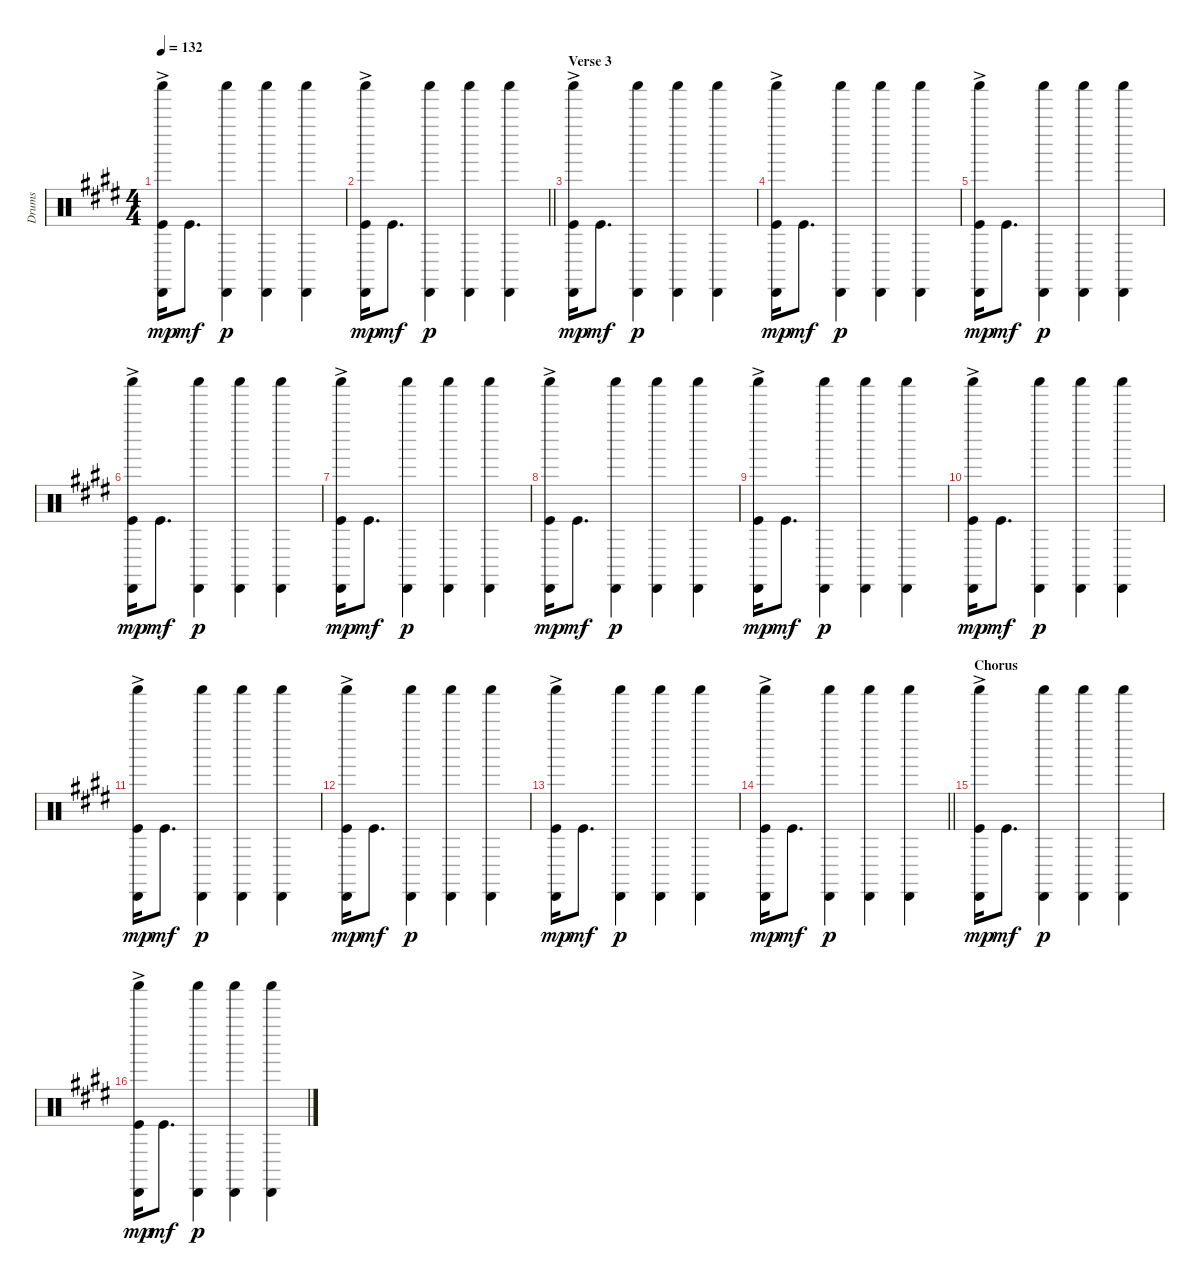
\track ("Drums" "Drums") {instrument percussion}
\staff {score}
\articulation defaults
\ts (4 4)
\tempo 132
\clef neutral
\ks e
("Shaker (hit)" "Cabasa (hit)"{ac} "Kick (hit)").16{dy mp} "Kick (hit)".8{d dy mf} ("Shaker (hit)" "Cabasa (hit)").4{dy p} ("Shaker (hit)" "Cabasa (hit)").4 ("Shaker (hit)" "Cabasa (hit)").4 |
\barLineRight lightlight
("Shaker (hit)" "Cabasa (hit)"{ac} "Kick (hit)").16{dy mp} "Kick (hit)".8{d dy mf} ("Shaker (hit)" "Cabasa (hit)").4{dy p} ("Shaker (hit)" "Cabasa (hit)").4 ("Shaker (hit)" "Cabasa (hit)").4 |
\section ("" "Verse 3")
("Shaker (hit)" "Cabasa (hit)"{ac} "Kick (hit)").16{dy mp} "Kick (hit)".8{d dy mf} ("Shaker (hit)" "Cabasa (hit)").4{dy p} ("Shaker (hit)" "Cabasa (hit)").4 ("Shaker (hit)" "Cabasa (hit)").4 |
("Shaker (hit)" "Cabasa (hit)"{ac} "Kick (hit)").16{dy mp} "Kick (hit)".8{d dy mf} ("Shaker (hit)" "Cabasa (hit)").4{dy p} ("Shaker (hit)" "Cabasa (hit)").4 ("Shaker (hit)" "Cabasa (hit)").4 |
("Shaker (hit)" "Cabasa (hit)"{ac} "Kick (hit)").16{dy mp} "Kick (hit)".8{d dy mf} ("Shaker (hit)" "Cabasa (hit)").4{dy p} ("Shaker (hit)" "Cabasa (hit)").4 ("Shaker (hit)" "Cabasa (hit)").4 |
("Shaker (hit)" "Cabasa (hit)"{ac} "Kick (hit)").16{dy mp} "Kick (hit)".8{d dy mf} ("Shaker (hit)" "Cabasa (hit)").4{dy p} ("Shaker (hit)" "Cabasa (hit)").4 ("Shaker (hit)" "Cabasa (hit)").4 |
("Shaker (hit)" "Cabasa (hit)"{ac} "Kick (hit)").16{dy mp} "Kick (hit)".8{d dy mf} ("Shaker (hit)" "Cabasa (hit)").4{dy p} ("Shaker (hit)" "Cabasa (hit)").4 ("Shaker (hit)" "Cabasa (hit)").4 |
("Shaker (hit)" "Cabasa (hit)"{ac} "Kick (hit)").16{dy mp} "Kick (hit)".8{d dy mf} ("Shaker (hit)" "Cabasa (hit)").4{dy p} ("Shaker (hit)" "Cabasa (hit)").4 ("Shaker (hit)" "Cabasa (hit)").4 |
("Shaker (hit)" "Cabasa (hit)"{ac} "Kick (hit)").16{dy mp} "Kick (hit)".8{d dy mf} ("Shaker (hit)" "Cabasa (hit)").4{dy p} ("Shaker (hit)" "Cabasa (hit)").4 ("Shaker (hit)" "Cabasa (hit)").4 |
("Shaker (hit)" "Cabasa (hit)"{ac} "Kick (hit)").16{dy mp} "Kick (hit)".8{d dy mf} ("Shaker (hit)" "Cabasa (hit)").4{dy p} ("Shaker (hit)" "Cabasa (hit)").4 ("Shaker (hit)" "Cabasa (hit)").4 |
("Shaker (hit)" "Cabasa (hit)"{ac} "Kick (hit)").16{dy mp} "Kick (hit)".8{d dy mf} ("Shaker (hit)" "Cabasa (hit)").4{dy p} ("Shaker (hit)" "Cabasa (hit)").4 ("Shaker (hit)" "Cabasa (hit)").4 |
("Shaker (hit)" "Cabasa (hit)"{ac} "Kick (hit)").16{dy mp} "Kick (hit)".8{d dy mf} ("Shaker (hit)" "Cabasa (hit)").4{dy p} ("Shaker (hit)" "Cabasa (hit)").4 ("Shaker (hit)" "Cabasa (hit)").4 |
("Shaker (hit)" "Cabasa (hit)"{ac} "Kick (hit)").16{dy mp} "Kick (hit)".8{d dy mf} ("Shaker (hit)" "Cabasa (hit)").4{dy p} ("Shaker (hit)" "Cabasa (hit)").4 ("Shaker (hit)" "Cabasa (hit)").4 |
\barLineRight lightlight
("Shaker (hit)" "Cabasa (hit)"{ac} "Kick (hit)").16{dy mp} "Kick (hit)".8{d dy mf} ("Shaker (hit)" "Cabasa (hit)").4{dy p} ("Shaker (hit)" "Cabasa (hit)").4 ("Shaker (hit)" "Cabasa (hit)").4 |
\section ("" "Chorus")
("Shaker (hit)" "Cabasa (hit)"{ac} "Kick (hit)").16{dy mp} "Kick (hit)".8{d dy mf} ("Shaker (hit)" "Cabasa (hit)").4{dy p} ("Shaker (hit)" "Cabasa (hit)").4 ("Shaker (hit)" "Cabasa (hit)").4 |
("Shaker (hit)" "Cabasa (hit)"{ac} "Kick (hit)").16{dy mp} "Kick (hit)".8{d dy mf} ("Shaker (hit)" "Cabasa (hit)").4{dy p} ("Shaker (hit)" "Cabasa (hit)").4 ("Shaker (hit)" "Cabasa (hit)").4
